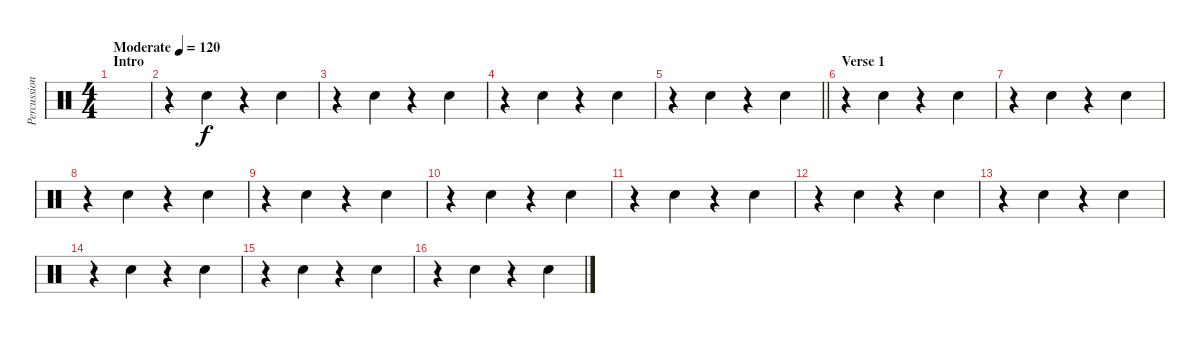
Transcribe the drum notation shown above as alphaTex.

\track ("Percussion" "Percussion") {instrument percussion}
\staff {score}
\articulation defaults
\ts (4 4)
\section ("" "Intro")
\tempo (120 "Moderate")
\clef neutral
\ks c
|
r.4 "Snare (hit) 2".4 r.4 "Snare (hit) 2".4 |
r.4 "Snare (hit) 2".4 r.4 "Snare (hit) 2".4 |
r.4 "Snare (hit) 2".4 r.4 "Snare (hit) 2".4 |
\barLineRight lightlight
r.4 "Snare (hit) 2".4 r.4 "Snare (hit) 2".4 |
\section ("" "Verse 1")
r.4 "Snare (hit) 2".4 r.4 "Snare (hit) 2".4 |
r.4 "Snare (hit) 2".4 r.4 "Snare (hit) 2".4 |
r.4 "Snare (hit) 2".4 r.4 "Snare (hit) 2".4 |
r.4 "Snare (hit) 2".4 r.4 "Snare (hit) 2".4 |
r.4 "Snare (hit) 2".4 r.4 "Snare (hit) 2".4 |
r.4 "Snare (hit) 2".4 r.4 "Snare (hit) 2".4 |
r.4 "Snare (hit) 2".4 r.4 "Snare (hit) 2".4 |
r.4 "Snare (hit) 2".4 r.4 "Snare (hit) 2".4 |
r.4 "Snare (hit) 2".4 r.4 "Snare (hit) 2".4 |
r.4 "Snare (hit) 2".4 r.4 "Snare (hit) 2".4 |
r.4 "Snare (hit) 2".4 r.4 "Snare (hit) 2".4
